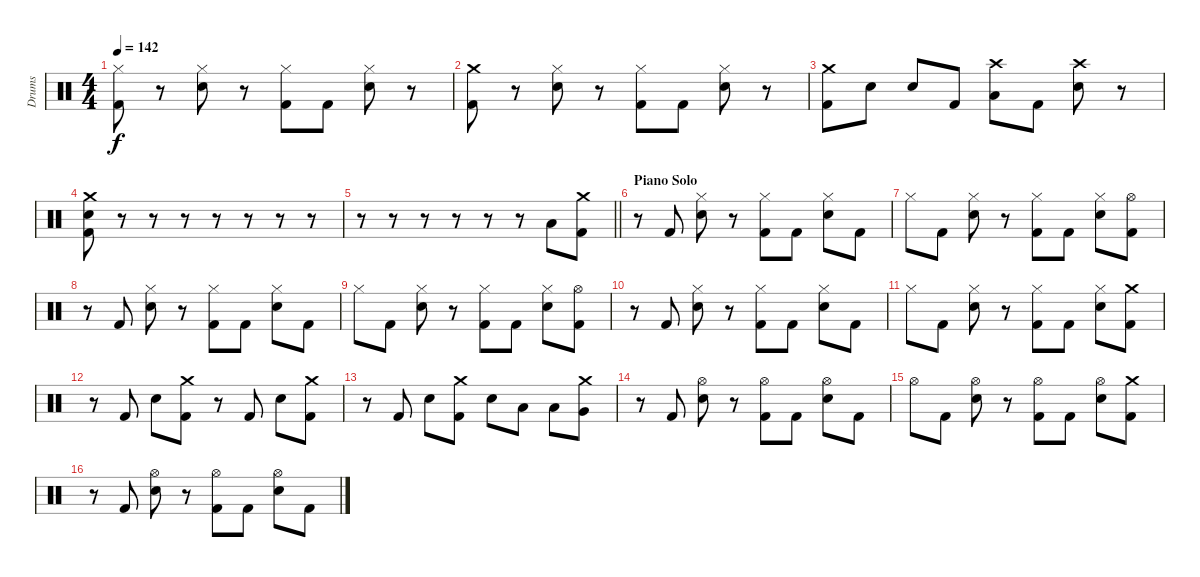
\track ("Drums" "Drums") {instrument percussion}
\staff {score}
\articulation defaults
\ts (4 4)
\tempo 142
\clef neutral
\ks c
("Hi-Hat (closed)" "Kick (hit) 2").8{dy f} r.8 ("Hi-Hat (closed)" "Electric Snare (hit)").8 r.8 ("Hi-Hat (closed)" "Kick (hit) 2").8 "Kick (hit) 2".8 ("Hi-Hat (closed)" "Electric Snare (hit)").8 r.8 |
("Crash medium (hit)" "Kick (hit) 2").8 r.8 ("Hi-Hat (closed)" "Electric Snare (hit)").8 r.8 ("Hi-Hat (closed)" "Kick (hit) 2").8 "Kick (hit) 2".8 ("Hi-Hat (closed)" "Electric Snare (hit)").8 r.8 |
("Crash medium (hit)" "Kick (hit) 2").8 "Electric Snare (hit)".8 "Electric Snare (hit)".8 "Kick (hit) 2".8 ("Crash high (hit)" "Low Floor Tom (hit)").8 "Kick (hit) 2".8 ("Crash high (hit)" "Electric Snare (hit)").8 r.8 |
("Crash medium (hit)" "Electric Snare (hit)" "Kick (hit) 2").8 r.8 r.8 r.8 r.8 r.8 r.8 r.8 |
\barLineRight lightlight
r.8 r.8 r.8 r.8 r.8 r.8 "Low Floor Tom (hit)".8 ("Crash medium (hit)" "Kick (hit) 2").8 |
\section ("" "Piano Solo")
r.8 "Kick (hit) 2".8 ("Hi-Hat (closed)" "Electric Snare (hit)").8 r.8 ("Hi-Hat (closed)" "Kick (hit) 2").8 "Kick (hit) 2".8 ("Hi-Hat (closed)" "Electric Snare (hit)").8 "Kick (hit) 2".8 |
"Hi-Hat (closed)".8 "Kick (hit) 2".8 ("Hi-Hat (closed)" "Electric Snare (hit)").8 r.8 ("Hi-Hat (closed)" "Kick (hit) 2").8 "Kick (hit) 2".8 ("Hi-Hat (closed)" "Electric Snare (hit)").8 ("Hi-Hat (open)" "Kick (hit) 2").8 |
r.8 "Kick (hit) 2".8 ("Hi-Hat (closed)" "Electric Snare (hit)").8 r.8 ("Hi-Hat (closed)" "Kick (hit) 2").8 "Kick (hit) 2".8 ("Hi-Hat (closed)" "Electric Snare (hit)").8 "Kick (hit) 2".8 |
"Hi-Hat (closed)".8 "Kick (hit) 2".8 ("Hi-Hat (closed)" "Electric Snare (hit)").8 r.8 ("Hi-Hat (closed)" "Kick (hit) 2").8 "Kick (hit) 2".8 ("Hi-Hat (closed)" "Electric Snare (hit)").8 ("Hi-Hat (open)" "Kick (hit) 2").8 |
r.8 "Kick (hit) 2".8 ("Hi-Hat (closed)" "Electric Snare (hit)").8 r.8 ("Hi-Hat (closed)" "Kick (hit) 2").8 "Kick (hit) 2".8 ("Hi-Hat (closed)" "Electric Snare (hit)").8 "Kick (hit) 2".8 |
"Hi-Hat (closed)".8 "Kick (hit) 2".8 ("Hi-Hat (closed)" "Electric Snare (hit)").8 r.8 ("Hi-Hat (closed)" "Kick (hit) 2").8 "Kick (hit) 2".8 ("Hi-Hat (closed)" "Electric Snare (hit)").8 ("Crash medium (hit)" "Kick (hit) 2").8 |
r.8 "Kick (hit) 2".8 "Electric Snare (hit)".8 ("Crash medium (hit)" "Kick (hit) 2").8 r.8 "Kick (hit) 2".8 "Electric Snare (hit)".8 ("Crash medium (hit)" "Kick (hit) 2").8 |
r.8 "Kick (hit) 2".8 "Electric Snare (hit)".8 ("Crash medium (hit)" "Kick (hit) 2").8 "Electric Snare (hit)".8 "Low Tom (hit)".8 "Low Tom (hit)".8 ("Crash medium (hit)" "Very Low Tom (hit)").8 |
r.8 "Kick (hit) 2".8 ("Hi-Hat (open)" "Electric Snare (hit)").8 r.8 ("Hi-Hat (open)" "Kick (hit) 2").8 "Kick (hit) 2".8 ("Hi-Hat (open)" "Electric Snare (hit)").8 "Kick (hit) 2".8 |
"Hi-Hat (open)".8 "Kick (hit) 2".8 ("Hi-Hat (open)" "Electric Snare (hit)").8 r.8 ("Hi-Hat (open)" "Kick (hit) 2").8 "Kick (hit) 2".8 ("Hi-Hat (open)" "Electric Snare (hit)").8 ("Crash medium (hit)" "Kick (hit) 2").8 |
r.8 "Kick (hit) 2".8 ("Hi-Hat (open)" "Electric Snare (hit)").8 r.8 ("Hi-Hat (open)" "Kick (hit) 2").8 "Kick (hit) 2".8 ("Hi-Hat (open)" "Electric Snare (hit)").8 "Kick (hit) 2".8
